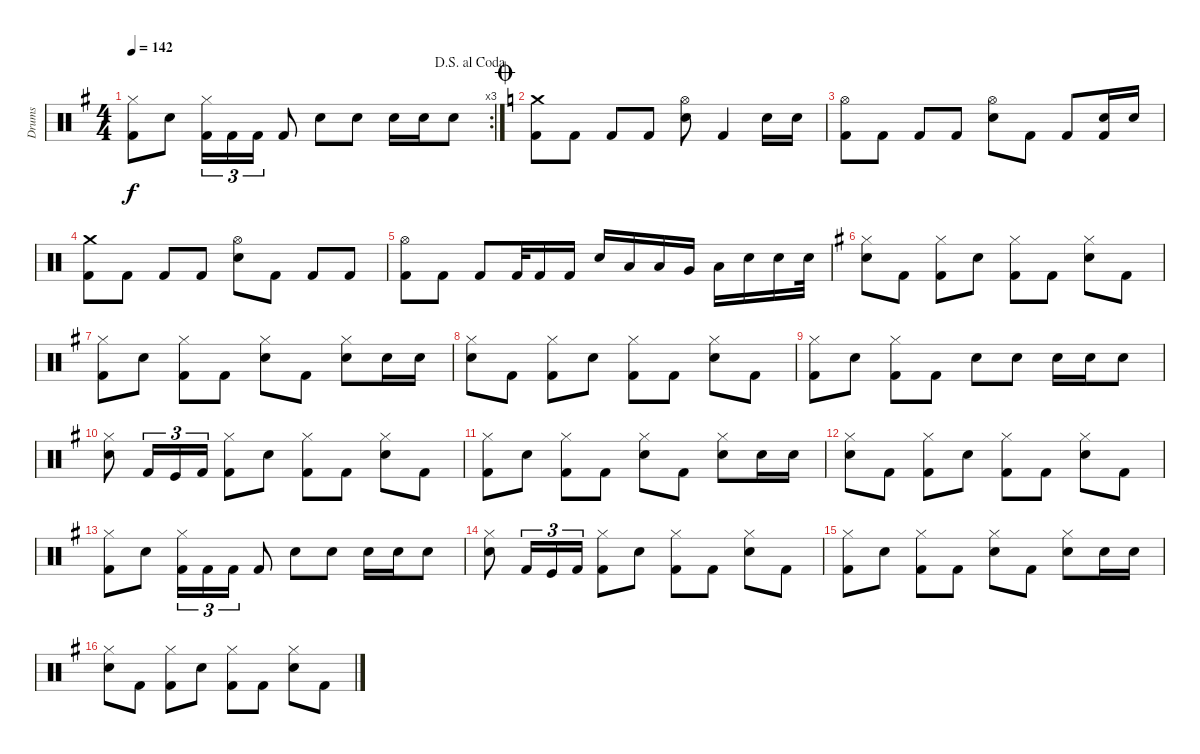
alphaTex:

\track ("Drums" "Drums") {instrument percussion}
\staff {score}
\articulation defaults
\rc 3
\ts (4 4)
\jump dalsegnoalcoda
\tempo 142
\clef neutral
\ks g
("Kick (hit) 2" "Hi-Hat (closed)").8{dy f} "Electric Snare (hit)".8 ("Kick (hit) 2" "Hi-Hat (closed)").16{tu (3 2)} "Kick (hit) 2".16{tu (3 2)} "Kick (hit) 2".16{tu (3 2)} "Kick (hit) 2".8 "Electric Snare (hit)".8 "Electric Snare (hit)".8 "Electric Snare (hit)".16 "Electric Snare (hit)".16 "Electric Snare (hit)".8 |
\jump coda
\ks c
("Kick (hit) 2" "Crash medium (hit)").8 "Kick (hit) 2".8 "Kick (hit) 2".8 "Kick (hit) 2".8 ("Electric Snare (hit)" "Hi-Hat (open)").8 "Kick (hit) 2".4 "Electric Snare (hit)".16 "Electric Snare (hit)".16 |
("Kick (hit) 2" "Hi-Hat (open)").8 "Kick (hit) 2".8 "Kick (hit) 2".8 "Kick (hit) 2".8 ("Electric Snare (hit)" "Hi-Hat (open)").8 "Kick (hit) 2".8 "Kick (hit) 2".8 ("Electric Snare (hit)" "Kick (hit) 2").16 "Electric Snare (hit)".16 |
("Kick (hit) 2" "Crash medium (hit)").8 "Kick (hit) 2".8 "Kick (hit) 2".8 "Kick (hit) 2".8 ("Electric Snare (hit)" "Hi-Hat (open)").8 "Kick (hit) 2".8 "Kick (hit) 2".8 "Kick (hit) 2".8 |
("Kick (hit) 2" "Hi-Hat (open)").8 "Kick (hit) 2".8 "Kick (hit) 2".8 "Kick (hit) 2".32 "Kick (hit) 2".16 "Kick (hit) 2".16 "Electric Snare (hit)".16 "Low Tom (hit)".16 "Low Tom (hit)".16 "Very Low Tom (hit)".16 "Low Floor Tom (hit)".16 "Electric Snare (hit)".16 "Electric Snare (hit)".16 "Electric Snare (hit)".32 |
\ks g
("Electric Snare (hit)" "Hi-Hat (closed)").8 "Kick (hit) 2".8 ("Kick (hit) 2" "Hi-Hat (closed)").8 "Electric Snare (hit)".8 ("Kick (hit) 2" "Hi-Hat (closed)").8 "Kick (hit) 2".8 ("Electric Snare (hit)" "Hi-Hat (closed)").8 "Kick (hit) 2".8 |
("Kick (hit) 2" "Hi-Hat (closed)").8 "Electric Snare (hit)".8 ("Kick (hit) 2" "Hi-Hat (closed)").8 "Kick (hit) 2".8 ("Electric Snare (hit)" "Hi-Hat (closed)").8 "Kick (hit) 2".8 ("Electric Snare (hit)" "Hi-Hat (closed)").8 "Electric Snare (hit)".16 "Electric Snare (hit)".16 |
("Electric Snare (hit)" "Hi-Hat (closed)").8 "Kick (hit) 2".8 ("Kick (hit) 2" "Hi-Hat (closed)").8 "Electric Snare (hit)".8 ("Kick (hit) 2" "Hi-Hat (closed)").8 "Kick (hit) 2".8 ("Electric Snare (hit)" "Hi-Hat (closed)").8 "Kick (hit) 2".8 |
("Kick (hit) 2" "Hi-Hat (closed)").8 "Electric Snare (hit)".8 ("Kick (hit) 2" "Hi-Hat (closed)").8 "Kick (hit) 2".8 "Electric Snare (hit)".8 "Electric Snare (hit)".8 "Electric Snare (hit)".16 "Electric Snare (hit)".16 "Electric Snare (hit)".8 |
("Electric Snare (hit)" "Hi-Hat (closed)").8 "Kick (hit) 2".16{tu (3 2)} "Kick (hit)".16{tu (3 2)} "Kick (hit) 2".16{tu (3 2)} ("Kick (hit) 2" "Hi-Hat (closed)").8 "Electric Snare (hit)".8 ("Kick (hit) 2" "Hi-Hat (closed)").8 "Kick (hit) 2".8 ("Electric Snare (hit)" "Hi-Hat (closed)").8 "Kick (hit) 2".8 |
("Kick (hit) 2" "Hi-Hat (closed)").8 "Electric Snare (hit)".8 ("Kick (hit) 2" "Hi-Hat (closed)").8 "Kick (hit) 2".8 ("Electric Snare (hit)" "Hi-Hat (closed)").8 "Kick (hit) 2".8 ("Electric Snare (hit)" "Hi-Hat (closed)").8 "Electric Snare (hit)".16 "Electric Snare (hit)".16 |
("Electric Snare (hit)" "Hi-Hat (closed)").8 "Kick (hit) 2".8 ("Kick (hit) 2" "Hi-Hat (closed)").8 "Electric Snare (hit)".8 ("Kick (hit) 2" "Hi-Hat (closed)").8 "Kick (hit) 2".8 ("Electric Snare (hit)" "Hi-Hat (closed)").8 "Kick (hit) 2".8 |
("Kick (hit) 2" "Hi-Hat (closed)").8 "Electric Snare (hit)".8 ("Kick (hit) 2" "Hi-Hat (closed)").16{tu (3 2)} "Kick (hit) 2".16{tu (3 2)} "Kick (hit) 2".16{tu (3 2)} "Kick (hit) 2".8 "Electric Snare (hit)".8 "Electric Snare (hit)".8 "Electric Snare (hit)".16 "Electric Snare (hit)".16 "Electric Snare (hit)".8 |
("Electric Snare (hit)" "Hi-Hat (closed)").8 "Kick (hit) 2".16{tu (3 2)} "Kick (hit)".16{tu (3 2)} "Kick (hit) 2".16{tu (3 2)} ("Kick (hit) 2" "Hi-Hat (closed)").8 "Electric Snare (hit)".8 ("Kick (hit) 2" "Hi-Hat (closed)").8 "Kick (hit) 2".8 ("Electric Snare (hit)" "Hi-Hat (closed)").8 "Kick (hit) 2".8 |
("Kick (hit) 2" "Hi-Hat (closed)").8 "Electric Snare (hit)".8 ("Kick (hit) 2" "Hi-Hat (closed)").8 "Kick (hit) 2".8 ("Electric Snare (hit)" "Hi-Hat (closed)").8 "Kick (hit) 2".8 ("Electric Snare (hit)" "Hi-Hat (closed)").8 "Electric Snare (hit)".16 "Electric Snare (hit)".16 |
("Electric Snare (hit)" "Hi-Hat (closed)").8 "Kick (hit) 2".8 ("Kick (hit) 2" "Hi-Hat (closed)").8 "Electric Snare (hit)".8 ("Kick (hit) 2" "Hi-Hat (closed)").8 "Kick (hit) 2".8 ("Electric Snare (hit)" "Hi-Hat (closed)").8 "Kick (hit) 2".8
